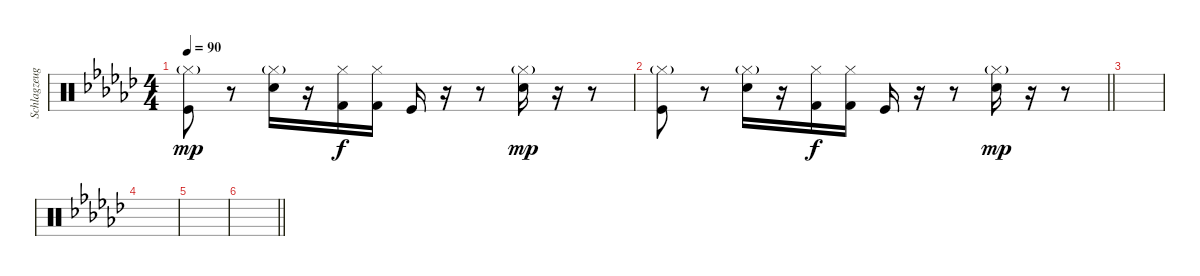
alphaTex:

\track ("Schlagzeug" "Schlagzeug") {instrument percussion}
\staff {score}
\articulation defaults
\ts (4 4)
\tempo 90
\clef neutral
\ks ebminor
("Hi-Hat (closed)"{g} "Kick (hit)").8{dy mp} r.8 ("Hi-Hat (closed)"{g} "Electric Snare (hit)").16 r.16 ("Hi-Hat (closed)" "Kick (hit) 2").16{dy f} ("Hi-Hat (closed)" "Kick (hit) 2").16 "Kick (hit)".16 r.16 r.8 ("Hi-Hat (closed)"{g} "Electric Snare (hit)").16{dy mp} r.16 r.8 |
\barLineRight lightlight
("Hi-Hat (closed)"{g} "Kick (hit)").8 r.8 ("Hi-Hat (closed)"{g} "Electric Snare (hit)").16 r.16 ("Hi-Hat (closed)" "Kick (hit) 2").16{dy f} ("Hi-Hat (closed)" "Kick (hit) 2").16 "Kick (hit)".16 r.16 r.8 ("Hi-Hat (closed)"{g} "Electric Snare (hit)").16{dy mp} r.16 r.8 |
|
|
|
\barLineRight lightlight
